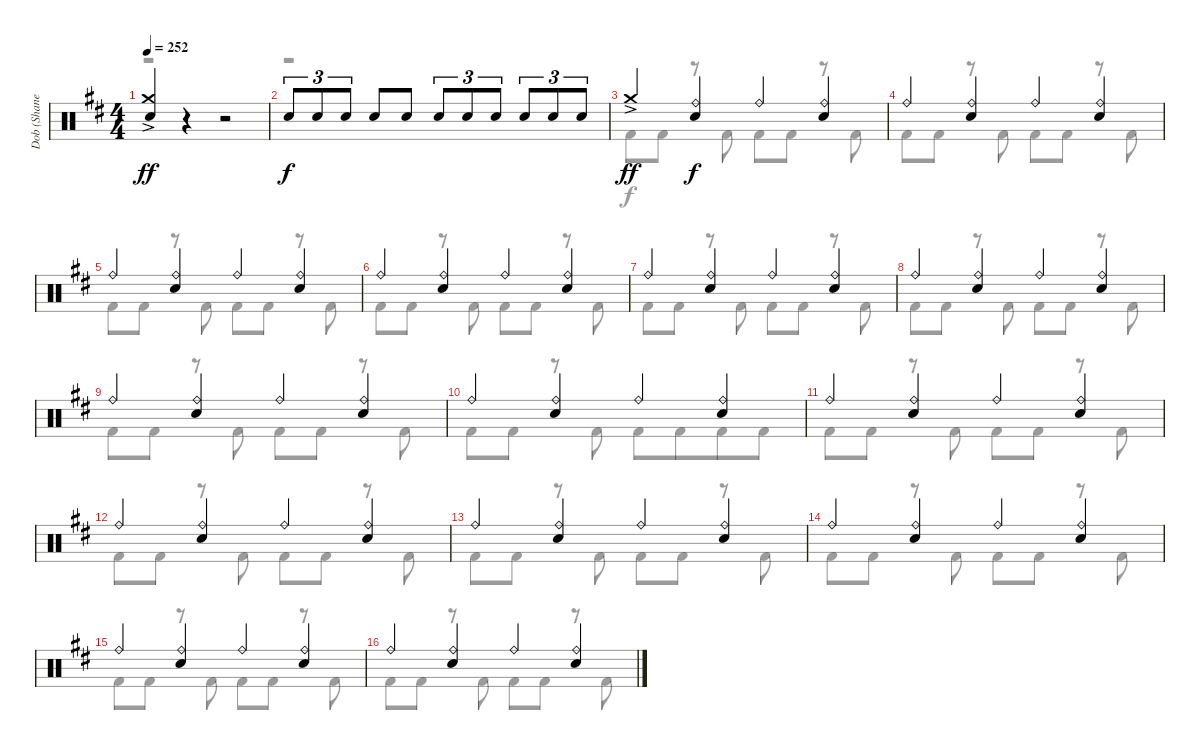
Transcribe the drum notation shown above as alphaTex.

\track ("Dob (Shane Gaalaas)" "Dob (Shane") {instrument percussion}
\staff {score}
\articulation defaults
\voice
\ts (4 4)
\tempo 252
\clef neutral
\ks d
("Crash medium (hit)"{ac} "Electric Snare (hit)").4{dy ff} r.4 r.2 |
"Electric Snare (hit)".8{tu (3 2) dy f} "Electric Snare (hit)".8{tu (3 2)} "Electric Snare (hit)".8{tu (3 2)} "Electric Snare (hit)".8 "Electric Snare (hit)".8 "Electric Snare (hit)".8{tu (3 2)} "Electric Snare (hit)".8{tu (3 2)} "Electric Snare (hit)".8{tu (3 2)} "Electric Snare (hit)".8{tu (3 2)} "Electric Snare (hit)".8{tu (3 2)} "Electric Snare (hit)".8{tu (3 2)} |
"Crash medium (hit)"{ac}.4{dy ff} ("Ride (bell)" "Electric Snare (hit)").4{dy f} "Ride (bell)".4 ("Ride (bell)" "Electric Snare (hit)").4 |
"Ride (bell)".4 ("Ride (bell)" "Electric Snare (hit)").4 "Ride (bell)".4 ("Ride (bell)" "Electric Snare (hit)").4 |
"Ride (bell)".4 ("Ride (bell)" "Electric Snare (hit)").4 "Ride (bell)".4 ("Ride (bell)" "Electric Snare (hit)").4 |
"Ride (bell)".4 ("Ride (bell)" "Electric Snare (hit)").4 "Ride (bell)".4 ("Ride (bell)" "Electric Snare (hit)").4 |
"Ride (bell)".4 ("Ride (bell)" "Electric Snare (hit)").4 "Ride (bell)".4 ("Ride (bell)" "Electric Snare (hit)").4 |
"Ride (bell)".4 ("Ride (bell)" "Electric Snare (hit)").4 "Ride (bell)".4 ("Ride (bell)" "Electric Snare (hit)").4 |
"Ride (bell)".4 ("Ride (bell)" "Electric Snare (hit)").4 "Ride (bell)".4 ("Ride (bell)" "Electric Snare (hit)").4 |
"Ride (bell)".4 ("Ride (bell)" "Electric Snare (hit)").4 "Ride (bell)".4 ("Ride (bell)" "Electric Snare (hit)").4 |
"Ride (bell)".4 ("Ride (bell)" "Electric Snare (hit)").4 "Ride (bell)".4 ("Ride (bell)" "Electric Snare (hit)").4 |
"Ride (bell)".4 ("Ride (bell)" "Electric Snare (hit)").4 "Ride (bell)".4 ("Ride (bell)" "Electric Snare (hit)").4 |
"Ride (bell)".4 ("Ride (bell)" "Electric Snare (hit)").4 "Ride (bell)".4 ("Ride (bell)" "Electric Snare (hit)").4 |
"Ride (bell)".4 ("Ride (bell)" "Electric Snare (hit)").4 "Ride (bell)".4 ("Ride (bell)" "Electric Snare (hit)").4 |
"Ride (bell)".4 ("Ride (bell)" "Electric Snare (hit)").4 "Ride (bell)".4 ("Ride (bell)" "Electric Snare (hit)").4 |
"Ride (bell)".4 ("Ride (bell)" "Electric Snare (hit)").4 "Ride (bell)".4 ("Ride (bell)" "Electric Snare (hit)").4
\voice
\clef neutral
\ottava regular
\simile none
\ks d
r.1{dy f} |
r.1 |
"Kick (hit) 2".8 "Kick (hit) 2".8 r.8 "Kick (hit) 2".8 "Kick (hit) 2".8 "Kick (hit) 2".8 r.8 "Kick (hit) 2".8 |
"Kick (hit) 2".8 "Kick (hit) 2".8 r.8 "Kick (hit) 2".8 "Kick (hit) 2".8 "Kick (hit) 2".8 r.8 "Kick (hit) 2".8 |
"Kick (hit) 2".8 "Kick (hit) 2".8 r.8 "Kick (hit) 2".8 "Kick (hit) 2".8 "Kick (hit) 2".8 r.8 "Kick (hit) 2".8 |
"Kick (hit) 2".8 "Kick (hit) 2".8 r.8 "Kick (hit) 2".8 "Kick (hit) 2".8 "Kick (hit) 2".8 r.8 "Kick (hit) 2".8 |
"Kick (hit) 2".8 "Kick (hit) 2".8 r.8 "Kick (hit) 2".8 "Kick (hit) 2".8 "Kick (hit) 2".8 r.8 "Kick (hit) 2".8 |
"Kick (hit) 2".8 "Kick (hit) 2".8 r.8 "Kick (hit) 2".8 "Kick (hit) 2".8 "Kick (hit) 2".8 r.8 "Kick (hit) 2".8 |
"Kick (hit) 2".8 "Kick (hit) 2".8 r.8 "Kick (hit) 2".8 "Kick (hit) 2".8 "Kick (hit) 2".8 r.8 "Kick (hit) 2".8 |
"Kick (hit) 2".8 "Kick (hit) 2".8 r.8 "Kick (hit) 2".8 "Kick (hit) 2".8 "Kick (hit) 2".8{beam merge} "Kick (hit) 2".8 "Kick (hit) 2".8 |
"Kick (hit) 2".8 "Kick (hit) 2".8 r.8 "Kick (hit) 2".8 "Kick (hit) 2".8 "Kick (hit) 2".8 r.8 "Kick (hit) 2".8 |
"Kick (hit) 2".8 "Kick (hit) 2".8 r.8 "Kick (hit) 2".8 "Kick (hit) 2".8 "Kick (hit) 2".8 r.8 "Kick (hit) 2".8 |
"Kick (hit) 2".8 "Kick (hit) 2".8 r.8 "Kick (hit) 2".8 "Kick (hit) 2".8 "Kick (hit) 2".8 r.8 "Kick (hit) 2".8 |
"Kick (hit) 2".8 "Kick (hit) 2".8 r.8 "Kick (hit) 2".8 "Kick (hit) 2".8 "Kick (hit) 2".8 r.8 "Kick (hit) 2".8 |
"Kick (hit) 2".8 "Kick (hit) 2".8 r.8 "Kick (hit) 2".8 "Kick (hit) 2".8 "Kick (hit) 2".8 r.8 "Kick (hit) 2".8 |
"Kick (hit) 2".8 "Kick (hit) 2".8 r.8 "Kick (hit) 2".8 "Kick (hit) 2".8 "Kick (hit) 2".8 r.8 "Kick (hit) 2".8
